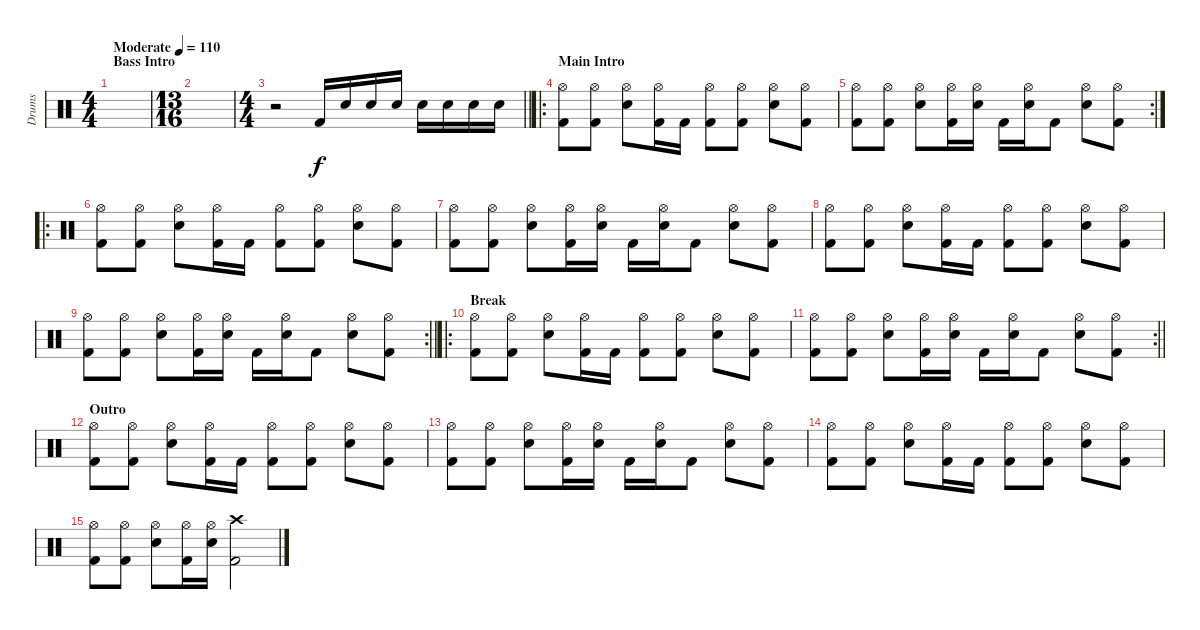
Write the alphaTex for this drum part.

\track ("Drums" "Drums") {instrument percussion}
\staff {score}
\articulation defaults
\ts (4 4)
\section ("" "Bass Intro")
\tempo (110 "Moderate")
\clef neutral
\ks c
|
\ts (13 16)
|
\ts (4 4)
\barLineRight lightlight
r.2 "Kick (hit) 2".16 "Snare (hit) 2".16 "Snare (hit) 2".16 "Snare (hit) 2".16 "Snare (hit) 2".16 "Snare (hit) 2".16 "Snare (hit) 2".16 "Snare (hit) 2".16 |
\ro
\section ("" "Main Intro")
("Hi-Hat (open)" "Kick (hit) 2").8 ("Hi-Hat (open)" "Kick (hit) 2").8 ("Hi-Hat (open)" "Electric Snare (hit)").8 ("Hi-Hat (open)" "Kick (hit) 2").16 "Kick (hit) 2".16 ("Hi-Hat (open)" "Kick (hit) 2").8 ("Hi-Hat (open)" "Kick (hit) 2").8 ("Hi-Hat (open)" "Electric Snare (hit)").8 ("Hi-Hat (open)" "Kick (hit) 2").8 |
\rc 2
("Hi-Hat (open)" "Kick (hit) 2").8 ("Hi-Hat (open)" "Kick (hit) 2").8 ("Hi-Hat (open)" "Electric Snare (hit)").8 ("Hi-Hat (open)" "Kick (hit) 2").16 ("Hi-Hat (open)" "Electric Snare (hit)").16 "Kick (hit) 2".16 ("Hi-Hat (open)" "Electric Snare (hit)").16 "Kick (hit) 2".8 ("Hi-Hat (open)" "Electric Snare (hit)").8 ("Hi-Hat (open)" "Kick (hit) 2").8 |
\ro
("Hi-Hat (open)" "Kick (hit) 2").8 ("Hi-Hat (open)" "Kick (hit) 2").8 ("Hi-Hat (open)" "Electric Snare (hit)").8 ("Hi-Hat (open)" "Kick (hit) 2").16 "Kick (hit) 2".16 ("Hi-Hat (open)" "Kick (hit) 2").8 ("Hi-Hat (open)" "Kick (hit) 2").8 ("Hi-Hat (open)" "Electric Snare (hit)").8 ("Hi-Hat (open)" "Kick (hit) 2").8 |
("Hi-Hat (open)" "Kick (hit) 2").8 ("Hi-Hat (open)" "Kick (hit) 2").8 ("Hi-Hat (open)" "Electric Snare (hit)").8 ("Hi-Hat (open)" "Kick (hit) 2").16 ("Hi-Hat (open)" "Electric Snare (hit)").16 "Kick (hit) 2".16 ("Hi-Hat (open)" "Electric Snare (hit)").16 "Kick (hit) 2".8 ("Hi-Hat (open)" "Electric Snare (hit)").8 ("Hi-Hat (open)" "Kick (hit) 2").8 |
("Hi-Hat (open)" "Kick (hit) 2").8 ("Hi-Hat (open)" "Kick (hit) 2").8 ("Hi-Hat (open)" "Electric Snare (hit)").8 ("Hi-Hat (open)" "Kick (hit) 2").16 "Kick (hit) 2".16 ("Hi-Hat (open)" "Kick (hit) 2").8 ("Hi-Hat (open)" "Kick (hit) 2").8 ("Hi-Hat (open)" "Electric Snare (hit)").8 ("Hi-Hat (open)" "Kick (hit) 2").8 |
\rc 2
\barLineRight lightlight
("Hi-Hat (open)" "Kick (hit) 2").8 ("Hi-Hat (open)" "Kick (hit) 2").8 ("Hi-Hat (open)" "Electric Snare (hit)").8 ("Hi-Hat (open)" "Kick (hit) 2").16 ("Hi-Hat (open)" "Electric Snare (hit)").16 "Kick (hit) 2".16 ("Hi-Hat (open)" "Electric Snare (hit)").16 "Kick (hit) 2".8 ("Hi-Hat (open)" "Electric Snare (hit)").8 ("Hi-Hat (open)" "Kick (hit) 2").8 |
\ro
\section ("" "Break")
("Hi-Hat (open)" "Kick (hit) 2").8 ("Hi-Hat (open)" "Kick (hit) 2").8 ("Hi-Hat (open)" "Electric Snare (hit)").8 ("Hi-Hat (open)" "Kick (hit) 2").16 "Kick (hit) 2".16 ("Hi-Hat (open)" "Kick (hit) 2").8 ("Hi-Hat (open)" "Kick (hit) 2").8 ("Hi-Hat (open)" "Electric Snare (hit)").8 ("Hi-Hat (open)" "Kick (hit) 2").8 |
\rc 2
\barLineRight lightlight
("Hi-Hat (open)" "Kick (hit) 2").8 ("Hi-Hat (open)" "Kick (hit) 2").8 ("Hi-Hat (open)" "Electric Snare (hit)").8 ("Hi-Hat (open)" "Kick (hit) 2").16 ("Hi-Hat (open)" "Electric Snare (hit)").16 "Kick (hit) 2".16 ("Hi-Hat (open)" "Electric Snare (hit)").16 "Kick (hit) 2".8 ("Hi-Hat (open)" "Electric Snare (hit)").8 ("Hi-Hat (open)" "Kick (hit) 2").8 |
\section ("" "Outro")
("Hi-Hat (open)" "Kick (hit) 2").8 ("Hi-Hat (open)" "Kick (hit) 2").8 ("Hi-Hat (open)" "Electric Snare (hit)").8 ("Hi-Hat (open)" "Kick (hit) 2").16 "Kick (hit) 2".16 ("Hi-Hat (open)" "Kick (hit) 2").8 ("Hi-Hat (open)" "Kick (hit) 2").8 ("Hi-Hat (open)" "Electric Snare (hit)").8 ("Hi-Hat (open)" "Kick (hit) 2").8 |
("Hi-Hat (open)" "Kick (hit) 2").8 ("Hi-Hat (open)" "Kick (hit) 2").8 ("Hi-Hat (open)" "Electric Snare (hit)").8 ("Hi-Hat (open)" "Kick (hit) 2").16 ("Hi-Hat (open)" "Electric Snare (hit)").16 "Kick (hit) 2".16 ("Hi-Hat (open)" "Electric Snare (hit)").16 "Kick (hit) 2".8 ("Hi-Hat (open)" "Electric Snare (hit)").8 ("Hi-Hat (open)" "Kick (hit) 2").8 |
("Hi-Hat (open)" "Kick (hit) 2").8 ("Hi-Hat (open)" "Kick (hit) 2").8 ("Hi-Hat (open)" "Electric Snare (hit)").8 ("Hi-Hat (open)" "Kick (hit) 2").16 "Kick (hit) 2".16 ("Hi-Hat (open)" "Kick (hit) 2").8 ("Hi-Hat (open)" "Kick (hit) 2").8 ("Hi-Hat (open)" "Electric Snare (hit)").8 ("Hi-Hat (open)" "Kick (hit) 2").8 |
("Hi-Hat (open)" "Kick (hit) 2").8 ("Hi-Hat (open)" "Kick (hit) 2").8 ("Hi-Hat (open)" "Electric Snare (hit)").8 ("Hi-Hat (open)" "Kick (hit) 2").16 ("Hi-Hat (open)" "Electric Snare (hit)").16 ("Crash high (hit)" "Kick (hit) 2").2
